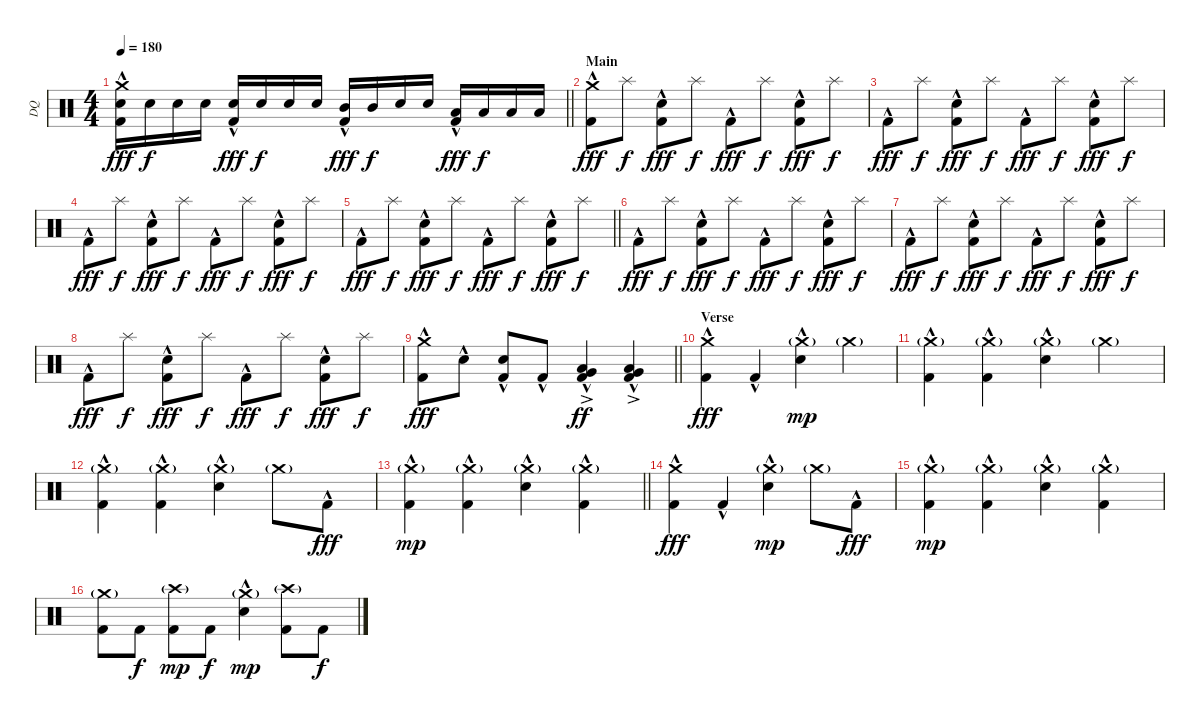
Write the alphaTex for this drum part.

\track ("DQ" "DQ") {instrument percussion}
\staff {score}
\articulation defaults
\ts (4 4)
\tempo 180
\clef neutral
\barLineRight lightlight
\ks c
("Kick (hit) 2"{hac} "Snare (hit) 2"{hac} "Crash medium (hit)").16{dy fff} "Snare (hit) 2".16{dy f} "Snare (hit) 2".16 "Snare (hit) 2".16 ("Kick (hit) 2"{hac} "Snare (hit) 2"{hac}).16{dy fff} "Snare (hit) 2".16{dy f} "Snare (hit) 2".16 "Snare (hit) 2".16 ("Kick (hit) 2"{hac} "Mid Tom (hit)").16{dy fff} "Mid Tom (hit)".16{dy f} "Snare (hit) 2".16 "Snare (hit) 2".16 ("Kick (hit) 2"{hac} "Low Tom (hit)").16{dy fff} "Low Tom (hit)".16{dy f} "Low Tom (hit)".16 "Low Tom (hit)".16 |
\section ("" "Main")
("Kick (hit) 2"{hac} "Crash medium (hit)").8{dy fff} "Splash (hit)".8{dy f} ("Kick (hit) 2"{hac} "Snare (hit) 2"{hac}).8{dy fff} "Splash (hit)".8{dy f} "Kick (hit) 2"{hac}.8{dy fff} "Splash (hit)".8{dy f} ("Kick (hit) 2"{hac} "Snare (hit) 2"{hac}).8{dy fff} "Splash (hit)".8{dy f} |
"Kick (hit) 2"{hac}.8{dy fff} "Splash (hit)".8{dy f} ("Kick (hit) 2"{hac} "Snare (hit) 2"{hac}).8{dy fff} "Splash (hit)".8{dy f} "Kick (hit) 2"{hac}.8{dy fff} "Splash (hit)".8{dy f} ("Kick (hit) 2"{hac} "Snare (hit) 2"{hac}).8{dy fff} "Splash (hit)".8{dy f} |
"Kick (hit) 2"{hac}.8{dy fff} "Splash (hit)".8{dy f} ("Kick (hit) 2"{hac} "Snare (hit) 2"{hac}).8{dy fff} "Splash (hit)".8{dy f} "Kick (hit) 2"{hac}.8{dy fff} "Splash (hit)".8{dy f} ("Kick (hit) 2"{hac} "Snare (hit) 2"{hac}).8{dy fff} "Splash (hit)".8{dy f} |
\barLineRight lightlight "Kick (hit) 2"{hac}.8{dy fff} "Splash (hit)".8{dy f}
("Kick (hit) 2"{hac} "Snare (hit) 2"{hac}).8{dy fff} "Splash (hit)".8{dy f} "Kick (hit) 2"{hac}.8{dy fff} "Splash (hit)".8{dy f} ("Kick (hit) 2"{hac} "Snare (hit) 2"{hac}).8{dy fff} "Splash (hit)".8{dy f} |
\section ("" "")
"Kick (hit) 2"{hac}.8{dy fff} "Splash (hit)".8{dy f} ("Kick (hit) 2"{hac} "Snare (hit) 2"{hac}).8{dy fff} "Splash (hit)".8{dy f} "Kick (hit) 2"{hac}.8{dy fff} "Splash (hit)".8{dy f} ("Kick (hit) 2"{hac} "Snare (hit) 2"{hac}).8{dy fff} "Splash (hit)".8{dy f} |
"Kick (hit) 2"{hac}.8{dy fff} "Splash (hit)".8{dy f} ("Kick (hit) 2"{hac} "Snare (hit) 2"{hac}).8{dy fff} "Splash (hit)".8{dy f} "Kick (hit) 2"{hac}.8{dy fff} "Splash (hit)".8{dy f} ("Kick (hit) 2"{hac} "Snare (hit) 2"{hac}).8{dy fff} "Splash (hit)".8{dy f} |
"Kick (hit) 2"{hac}.8{dy fff} "Splash (hit)".8{dy f} ("Kick (hit) 2"{hac} "Snare (hit) 2"{hac}).8{dy fff} "Splash (hit)".8{dy f} "Kick (hit) 2"{hac}.8{dy fff} "Splash (hit)".8{dy f} ("Kick (hit) 2"{hac} "Snare (hit) 2"{hac}).8{dy fff} "Splash (hit)".8{dy f} |
\barLineRight lightlight
("Kick (hit) 2"{hac} "Crash medium (hit)").8{dy fff} "Snare (hit) 2"{hac}.8 ("Kick (hit) 2"{hac} "Snare (hit) 2"{hac}).8 "Kick (hit) 2"{hac}.8 ("Kick (hit) 2"{hac} "Low Tom (hit)" "Very Low Tom (hit)"{ac}).4{dy ff} ("Kick (hit) 2"{hac} "Very Low Tom (hit)" "Low Floor Tom (hit)"{ac}).4 |
\section ("" "Verse")
("Kick (hit) 2"{hac} "Crash medium (hit)").4{dy fff} "Kick (hit) 2"{hac}.4 ("Snare (hit) 2"{hac} "Crash medium (hit)"{g}).4{dy mp} "Crash medium (hit)"{g}.4 |
("Kick (hit) 2"{hac} "Crash medium (hit)"{g}).4 ("Kick (hit) 2"{hac} "Crash medium (hit)"{g}).4 ("Snare (hit) 2"{hac} "Crash medium (hit)"{g}).4 "Crash medium (hit)"{g}.4 |
("Kick (hit) 2"{hac} "Crash medium (hit)"{g}).4 ("Kick (hit) 2"{hac} "Crash medium (hit)"{g}).4 ("Snare (hit) 2"{hac} "Crash medium (hit)"{g}).4 "Crash medium (hit)"{g}.8 "Kick (hit) 2"{hac}.8{dy fff} |
\barLineRight lightlight
("Kick (hit) 2"{hac} "Crash medium (hit)"{g}).4{dy mp} ("Kick (hit) 2"{hac} "Crash medium (hit)"{g}).4 ("Snare (hit) 2"{hac} "Crash medium (hit)"{g}).4 ("Kick (hit) 2"{hac} "Crash medium (hit)"{g}).4 |
\section ("" "")
("Kick (hit) 2"{hac} "Crash medium (hit)").4{dy fff} "Kick (hit) 2"{hac}.4 ("Snare (hit) 2"{hac} "Crash medium (hit)"{g}).4{dy mp} "Crash medium (hit)"{g}.8 "Kick (hit) 2"{hac}.8{dy fff} |
("Kick (hit) 2"{hac} "Crash medium (hit)"{g}).4{dy mp} ("Kick (hit) 2"{hac} "Crash medium (hit)"{g}).4 ("Snare (hit) 2"{hac} "Crash medium (hit)"{g}).4 ("Kick (hit) 2"{hac} "Crash medium (hit)"{g}).4 |
("Kick (hit) 2" "Crash medium (hit)"{g}).8 "Kick (hit) 2".8{dy f} ("Kick (hit) 2" "Crash high (hit)"{g}).8{dy mp} "Kick (hit) 2".8{dy f} ("Snare (hit) 2"{hac} "Crash medium (hit)"{g}).4{dy mp} ("Kick (hit) 2" "Crash high (hit)"{g}).8 "Kick (hit) 2".8{dy f}
